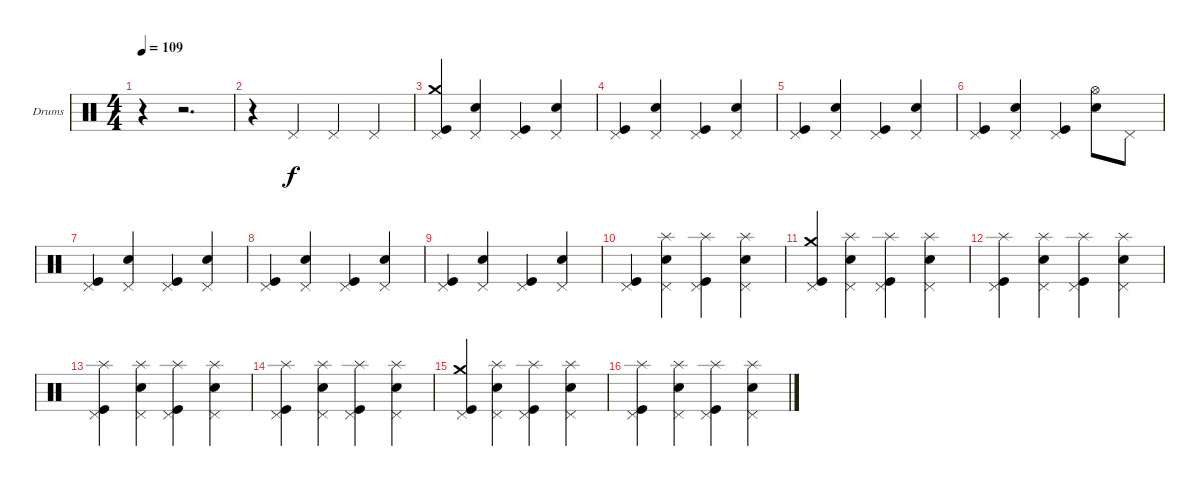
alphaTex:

\bracketExtendMode groupsimilarinstruments
\firstSystemTrackNameOrientation horizontal
\otherSystemsTrackNameOrientation horizontal
\track ("Drumkit" "Drums") {instrument percussion}
\staff {score}
\articulation defaults
\ts (4 4)
\tempo 109
\clef neutral
\ks c
r.4{dy f} r.2{d} |
r.4 "Pedal Hi-Hat (hit)".4 "Pedal Hi-Hat (hit)".4 "Pedal Hi-Hat (hit)".4 |
("Crash medium (hit)" "Pedal Hi-Hat (hit)" "Kick (hit)").4 ("Pedal Hi-Hat (hit)" "Snare (hit) 2").4 ("Pedal Hi-Hat (hit)" "Kick (hit)").4 ("Pedal Hi-Hat (hit)" "Snare (hit) 2").4 |
("Pedal Hi-Hat (hit)" "Kick (hit)").4 ("Pedal Hi-Hat (hit)" "Snare (hit) 2").4 ("Pedal Hi-Hat (hit)" "Kick (hit)").4 ("Pedal Hi-Hat (hit)" "Snare (hit) 2").4 |
("Pedal Hi-Hat (hit)" "Kick (hit)").4 ("Pedal Hi-Hat (hit)" "Snare (hit) 2").4 ("Pedal Hi-Hat (hit)" "Kick (hit)").4 ("Pedal Hi-Hat (hit)" "Snare (hit) 2").4 |
("Pedal Hi-Hat (hit)" "Kick (hit)").4 ("Pedal Hi-Hat (hit)" "Snare (hit) 2").4 ("Pedal Hi-Hat (hit)" "Kick (hit)").4 ("Hi-Hat (open)" "Snare (hit) 2").8 "Pedal Hi-Hat (hit)".8 |
("Pedal Hi-Hat (hit)" "Kick (hit)").4 ("Pedal Hi-Hat (hit)" "Snare (hit) 2").4 ("Pedal Hi-Hat (hit)" "Kick (hit)").4 ("Pedal Hi-Hat (hit)" "Snare (hit) 2").4 |
("Pedal Hi-Hat (hit)" "Kick (hit)").4 ("Pedal Hi-Hat (hit)" "Snare (hit) 2").4 ("Pedal Hi-Hat (hit)" "Kick (hit)").4 ("Pedal Hi-Hat (hit)" "Snare (hit) 2").4 |
("Pedal Hi-Hat (hit)" "Kick (hit)").4 ("Pedal Hi-Hat (hit)" "Snare (hit) 2").4 ("Pedal Hi-Hat (hit)" "Kick (hit)").4 ("Pedal Hi-Hat (hit)" "Snare (hit) 2").4 |
("Pedal Hi-Hat (hit)" "Kick (hit)").4 ("Splash (hit)" "Pedal Hi-Hat (hit)" "Snare (hit) 2").4 ("Splash (hit)" "Pedal Hi-Hat (hit)" "Kick (hit)").4 ("Splash (hit)" "Pedal Hi-Hat (hit)" "Snare (hit) 2").4 |
("Crash medium (hit)" "Pedal Hi-Hat (hit)" "Kick (hit)").4 ("Splash (hit)" "Pedal Hi-Hat (hit)" "Snare (hit) 2").4 ("Splash (hit)" "Pedal Hi-Hat (hit)" "Kick (hit)").4 ("Splash (hit)" "Pedal Hi-Hat (hit)" "Snare (hit) 2").4 |
("Splash (hit)" "Pedal Hi-Hat (hit)" "Kick (hit)").4 ("Splash (hit)" "Pedal Hi-Hat (hit)" "Snare (hit) 2").4 ("Splash (hit)" "Pedal Hi-Hat (hit)" "Kick (hit)").4 ("Splash (hit)" "Pedal Hi-Hat (hit)" "Snare (hit) 2").4 |
("Splash (hit)" "Pedal Hi-Hat (hit)" "Kick (hit)").4 ("Splash (hit)" "Pedal Hi-Hat (hit)" "Snare (hit) 2").4 ("Splash (hit)" "Pedal Hi-Hat (hit)" "Kick (hit)").4 ("Splash (hit)" "Pedal Hi-Hat (hit)" "Snare (hit) 2").4 |
("Splash (hit)" "Pedal Hi-Hat (hit)" "Kick (hit)").4 ("Splash (hit)" "Pedal Hi-Hat (hit)" "Snare (hit) 2").4 ("Splash (hit)" "Pedal Hi-Hat (hit)" "Kick (hit)").4 ("Splash (hit)" "Pedal Hi-Hat (hit)" "Snare (hit) 2").4 |
("Crash medium (hit)" "Pedal Hi-Hat (hit)" "Kick (hit)").4 ("Splash (hit)" "Pedal Hi-Hat (hit)" "Snare (hit) 2").4 ("Splash (hit)" "Pedal Hi-Hat (hit)" "Kick (hit)").4 ("Splash (hit)" "Pedal Hi-Hat (hit)" "Snare (hit) 2").4 |
("Splash (hit)" "Pedal Hi-Hat (hit)" "Kick (hit)").4 ("Splash (hit)" "Pedal Hi-Hat (hit)" "Snare (hit) 2").4 ("Splash (hit)" "Pedal Hi-Hat (hit)" "Kick (hit)").4 ("Splash (hit)" "Pedal Hi-Hat (hit)" "Snare (hit) 2").4
